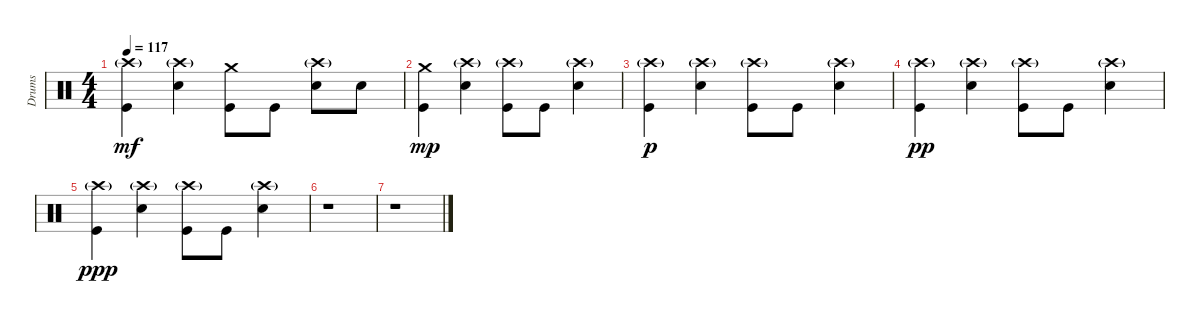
\track ("Drums" "Drums") {instrument percussion}
\staff {score}
\articulation defaults
\ts (4 4)
\tempo 117
\clef neutral
\ks c
("Crash high (hit)"{g} "Kick (hit)").4{dy mf} ("Crash high (hit)"{g} "Snare (hit) 2").4 ("Crash medium (hit)" "Kick (hit)").8 "Kick (hit)".8 ("Crash high (hit)"{g} "Snare (hit) 2").8 "Snare (hit) 2".8 |
("Crash medium (hit)" "Kick (hit)").4{dy mp} ("Crash high (hit)"{g} "Snare (hit) 2").4 ("Crash high (hit)"{g} "Kick (hit)").8 "Kick (hit)".8 ("Crash high (hit)"{g} "Snare (hit) 2").4 |
("Crash high (hit)"{g} "Kick (hit)").4{dy p} ("Crash high (hit)"{g} "Snare (hit) 2").4 ("Crash high (hit)"{g} "Kick (hit)").8 "Kick (hit)".8 ("Crash high (hit)"{g} "Snare (hit) 2").4 |
("Crash high (hit)"{g} "Kick (hit)").4{dy pp} ("Crash high (hit)"{g} "Snare (hit) 2").4 ("Crash high (hit)"{g} "Kick (hit)").8 "Kick (hit)".8 ("Crash high (hit)"{g} "Snare (hit) 2").4 |
("Crash high (hit)"{g} "Kick (hit)").4{dy ppp} ("Crash high (hit)"{g} "Snare (hit) 2").4 ("Crash high (hit)"{g} "Kick (hit)").8 "Kick (hit)".8 ("Crash high (hit)"{g} "Snare (hit) 2").4 |
r.1 |
r.1
